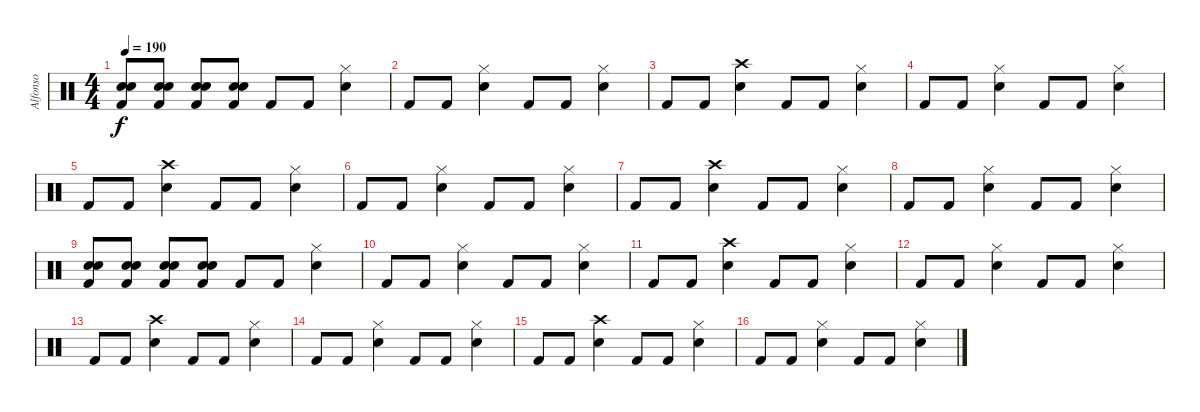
\track ("Alfonso" "Alfonso") {instrument percussion}
\staff {score}
\articulation defaults
\ts (4 4)
\tempo 190
\clef neutral
\ks c
("Kick (hit) 2" "Electric Snare (hit)" "Snare (hit) 2").8{dy f} ("Kick (hit) 2" "Electric Snare (hit)" "Snare (hit) 2").8 ("Kick (hit) 2" "Electric Snare (hit)" "Snare (hit) 2").8 ("Kick (hit) 2" "Electric Snare (hit)" "Snare (hit) 2").8 "Kick (hit) 2".8 "Kick (hit) 2".8 ("Hi-Hat (closed)" "Electric Snare (hit)").4 |
"Kick (hit) 2".8 "Kick (hit) 2".8 ("Hi-Hat (closed)" "Electric Snare (hit)").4 "Kick (hit) 2".8 "Kick (hit) 2".8 ("Hi-Hat (closed)" "Electric Snare (hit)").4 |
"Kick (hit) 2".8 "Kick (hit) 2".8 ("Crash high (hit)" "Electric Snare (hit)").4 "Kick (hit) 2".8 "Kick (hit) 2".8 ("Hi-Hat (closed)" "Electric Snare (hit)").4 |
"Kick (hit) 2".8 "Kick (hit) 2".8 ("Hi-Hat (closed)" "Electric Snare (hit)").4 "Kick (hit) 2".8 "Kick (hit) 2".8 ("Hi-Hat (closed)" "Electric Snare (hit)").4 |
"Kick (hit) 2".8 "Kick (hit) 2".8 ("Crash high (hit)" "Electric Snare (hit)").4 "Kick (hit) 2".8 "Kick (hit) 2".8 ("Hi-Hat (closed)" "Electric Snare (hit)").4 |
"Kick (hit) 2".8 "Kick (hit) 2".8 ("Hi-Hat (closed)" "Electric Snare (hit)").4 "Kick (hit) 2".8 "Kick (hit) 2".8 ("Hi-Hat (closed)" "Electric Snare (hit)").4 |
"Kick (hit) 2".8 "Kick (hit) 2".8 ("Crash high (hit)" "Electric Snare (hit)").4 "Kick (hit) 2".8 "Kick (hit) 2".8 ("Hi-Hat (closed)" "Electric Snare (hit)").4 |
"Kick (hit) 2".8 "Kick (hit) 2".8 ("Hi-Hat (closed)" "Electric Snare (hit)").4 "Kick (hit) 2".8 "Kick (hit) 2".8 ("Hi-Hat (closed)" "Electric Snare (hit)").4 |
("Kick (hit) 2" "Electric Snare (hit)" "Snare (hit) 2").8 ("Kick (hit) 2" "Electric Snare (hit)" "Snare (hit) 2").8 ("Kick (hit) 2" "Electric Snare (hit)" "Snare (hit) 2").8 ("Kick (hit) 2" "Electric Snare (hit)" "Snare (hit) 2").8 "Kick (hit) 2".8 "Kick (hit) 2".8 ("Hi-Hat (closed)" "Electric Snare (hit)").4 |
"Kick (hit) 2".8 "Kick (hit) 2".8 ("Hi-Hat (closed)" "Electric Snare (hit)").4 "Kick (hit) 2".8 "Kick (hit) 2".8 ("Hi-Hat (closed)" "Electric Snare (hit)").4 |
"Kick (hit) 2".8 "Kick (hit) 2".8 ("Crash high (hit)" "Electric Snare (hit)").4 "Kick (hit) 2".8 "Kick (hit) 2".8 ("Hi-Hat (closed)" "Electric Snare (hit)").4 |
"Kick (hit) 2".8 "Kick (hit) 2".8 ("Hi-Hat (closed)" "Electric Snare (hit)").4 "Kick (hit) 2".8 "Kick (hit) 2".8 ("Hi-Hat (closed)" "Electric Snare (hit)").4 |
"Kick (hit) 2".8 "Kick (hit) 2".8 ("Crash high (hit)" "Electric Snare (hit)").4 "Kick (hit) 2".8 "Kick (hit) 2".8 ("Hi-Hat (closed)" "Electric Snare (hit)").4 |
"Kick (hit) 2".8 "Kick (hit) 2".8 ("Hi-Hat (closed)" "Electric Snare (hit)").4 "Kick (hit) 2".8 "Kick (hit) 2".8 ("Hi-Hat (closed)" "Electric Snare (hit)").4 |
"Kick (hit) 2".8 "Kick (hit) 2".8 ("Crash high (hit)" "Electric Snare (hit)").4 "Kick (hit) 2".8 "Kick (hit) 2".8 ("Hi-Hat (closed)" "Electric Snare (hit)").4 |
"Kick (hit) 2".8 "Kick (hit) 2".8 ("Hi-Hat (closed)" "Electric Snare (hit)").4 "Kick (hit) 2".8 "Kick (hit) 2".8 ("Hi-Hat (closed)" "Electric Snare (hit)").4
